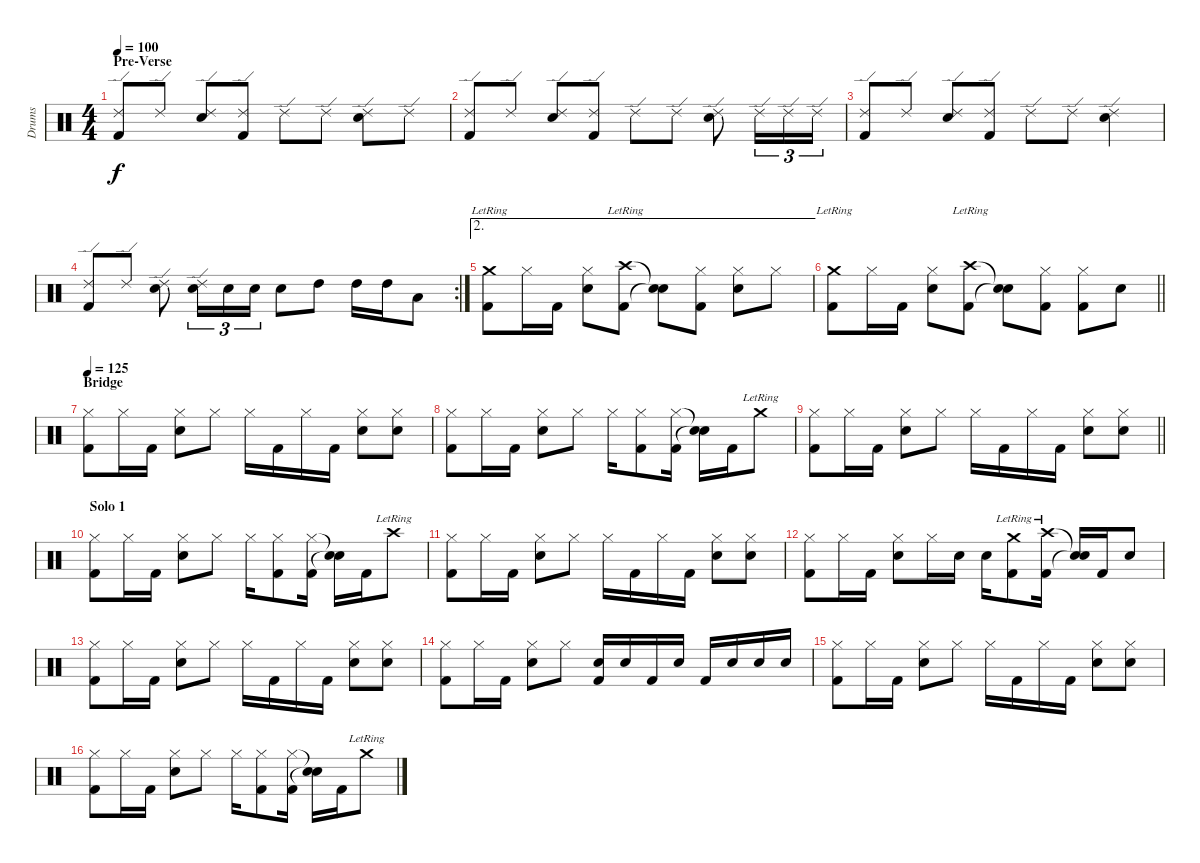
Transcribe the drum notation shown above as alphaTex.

\track ("Drums" "Drums") {instrument percussion}
\staff {score}
\articulation defaults
\ts (4 4)
\section ("" "Pre-Verse")
\tempo 100
\clef neutral
\ks c
("Ride (edge) 2" "Kick (hit) 2").8{dy f} "Ride (edge) 2".8 ("Ride (edge) 2" "Snare (hit) 2").8 ("Ride (edge) 2" "Kick (hit) 2").8 "Ride (edge) 2".8 "Ride (edge) 2".8 ("Ride (edge) 2" "Snare (hit) 2").8 "Ride (edge) 2".8 |
("Ride (edge) 2" "Kick (hit) 2").8 "Ride (edge) 2".8 ("Ride (edge) 2" "Snare (hit) 2").8 ("Ride (edge) 2" "Kick (hit) 2").8 "Ride (edge) 2".8 "Ride (edge) 2".8 ("Ride (edge) 2" "Snare (hit) 2").8 "Ride (edge) 2".16{tu (3 2)} "Ride (edge) 2".16{tu (3 2)} "Ride (edge) 2".16{tu (3 2)} |
("Ride (edge) 2" "Kick (hit) 2").8 "Ride (edge) 2".8 ("Ride (edge) 2" "Snare (hit) 2").8 ("Ride (edge) 2" "Kick (hit) 2").8 "Ride (edge) 2".8 "Ride (edge) 2".8 ("Ride (edge) 2" "Snare (hit) 2").4 |
\rc 2
("Ride (edge) 2" "Kick (hit) 2").8 "Ride (edge) 2".8 ("Ride (edge) 2" "Snare (hit) 2").8 ("Ride (edge) 2" "Snare (hit) 2").16{tu (3 2)} "Snare (hit) 2".16{tu (3 2)} "Snare (hit) 2".16{tu (3 2)} "Snare (hit) 2".8 "High Tom (hit)".8 "High Tom (hit)".16 "High Tom (hit)".16 "Low Tom (hit)".8 |
\ae 2
("Crash medium (hit)"{lr} "Kick (hit) 2").8 "Hi-Hat (closed)".16 "Kick (hit) 2".16 ("Hi-Hat (closed)" "Snare (hit) 2").8 ("Crash high (hit)"{lr} "Kick (hit) 2").8 ("Snare (hit)"{t} "Snare (hit)"{t}).8 ("Hi-Hat (closed)" "Kick (hit) 2").8 ("Hi-Hat (closed)" "Snare (hit) 2").8 "Hi-Hat (closed)".8 |
\barLineRight lightlight
("Crash medium (hit)"{lr} "Kick (hit) 2").8 "Hi-Hat (closed)".16 "Kick (hit) 2".16 ("Hi-Hat (closed)" "Snare (hit) 2").8 ("Crash high (hit)"{lr} "Kick (hit) 2").8 ("Snare (hit)"{t} "Snare (hit)"{t}).8 ("Hi-Hat (closed)" "Kick (hit) 2").8 ("Hi-Hat (closed)" "Kick (hit) 2").8 "Snare (hit) 2".8 |
\section ("" "Bridge")
\tempo 125
("Hi-Hat (closed)" "Kick (hit) 2").8 "Hi-Hat (closed)".16 "Kick (hit) 2".16 ("Hi-Hat (closed)" "Snare (hit) 2").8 "Hi-Hat (closed)".8 "Hi-Hat (closed)".16 "Kick (hit) 2".16 "Hi-Hat (closed)".16 "Kick (hit) 2".16 ("Hi-Hat (closed)" "Snare (hit) 2").8 ("Hi-Hat (closed)" "Snare (hit) 2").8 |
("Hi-Hat (closed)" "Kick (hit) 2").8 "Hi-Hat (closed)".16 "Kick (hit) 2".16 ("Hi-Hat (closed)" "Snare (hit) 2").8 "Hi-Hat (closed)".8 "Hi-Hat (closed)".16 ("Hi-Hat (closed)" "Kick (hit) 2").8 ("Hi-Hat (closed)" "Kick (hit) 2").16 ("Snare (hit)"{t} "Snare (hit)"{t}).16 "Kick (hit) 2".16 "Crash medium (hit)"{lr}.8 |
\barLineRight lightlight
("Hi-Hat (closed)" "Kick (hit) 2").8 "Hi-Hat (closed)".16 "Kick (hit) 2".16 ("Hi-Hat (closed)" "Snare (hit) 2").8 "Hi-Hat (closed)".8 "Hi-Hat (closed)".16 "Kick (hit) 2".16 "Hi-Hat (closed)".16 "Kick (hit) 2".16 ("Hi-Hat (closed)" "Snare (hit) 2").8 ("Hi-Hat (closed)" "Snare (hit) 2").8 |
\section ("" "Solo 1")
("Hi-Hat (closed)" "Kick (hit) 2").8 "Hi-Hat (closed)".16 "Kick (hit) 2".16 ("Hi-Hat (closed)" "Snare (hit) 2").8 "Hi-Hat (closed)".8 "Hi-Hat (closed)".16 ("Hi-Hat (closed)" "Kick (hit) 2").8 ("Hi-Hat (closed)" "Kick (hit) 2").16 ("Snare (hit)"{t} "Snare (hit)"{t}).16 "Kick (hit) 2".16 "Crash high (hit)"{lr}.8 |
("Hi-Hat (closed)" "Kick (hit) 2").8 "Hi-Hat (closed)".16 "Kick (hit) 2".16 ("Hi-Hat (closed)" "Snare (hit) 2").8 "Hi-Hat (closed)".8 "Hi-Hat (closed)".16 "Kick (hit) 2".16 "Hi-Hat (closed)".16 "Kick (hit) 2".16 ("Hi-Hat (closed)" "Snare (hit) 2").8 ("Hi-Hat (closed)" "Snare (hit) 2").8 |
("Hi-Hat (closed)" "Kick (hit) 2").8 "Hi-Hat (closed)".16 "Kick (hit) 2".16 ("Hi-Hat (closed)" "Snare (hit) 2").8 "Hi-Hat (closed)".16 "Snare (hit) 2".16 "Snare (hit) 2".16 ("Crash medium (hit)"{lr} "Kick (hit) 2").8 ("Crash high (hit)"{lr} "Kick (hit) 2").16 ("Snare (hit)"{t} "Snare (hit)"{t}).16 "Kick (hit) 2".16 "Snare (hit) 2".8 |
("Hi-Hat (closed)" "Kick (hit) 2").8 "Hi-Hat (closed)".16 "Kick (hit) 2".16 ("Hi-Hat (closed)" "Snare (hit) 2").8 "Hi-Hat (closed)".8 "Hi-Hat (closed)".16 "Kick (hit) 2".16 "Hi-Hat (closed)".16 "Kick (hit) 2".16 ("Hi-Hat (closed)" "Snare (hit) 2").8 ("Hi-Hat (closed)" "Snare (hit) 2").8 |
("Hi-Hat (closed)" "Kick (hit) 2").8 "Hi-Hat (closed)".16 "Kick (hit) 2".16 ("Hi-Hat (closed)" "Snare (hit) 2").8 "Hi-Hat (closed)".8 ("Snare (hit) 2" "Kick (hit) 2").16 "Snare (hit) 2".16 "Kick (hit) 2".16 "Snare (hit) 2".16 "Kick (hit) 2".16 "Snare (hit) 2".16 "Snare (hit) 2".16 "Snare (hit) 2".16 |
("Hi-Hat (closed)" "Kick (hit) 2").8 "Hi-Hat (closed)".16 "Kick (hit) 2".16 ("Hi-Hat (closed)" "Snare (hit) 2").8 "Hi-Hat (closed)".8 "Hi-Hat (closed)".16 "Kick (hit) 2".16 "Hi-Hat (closed)".16 "Kick (hit) 2".16 ("Hi-Hat (closed)" "Snare (hit) 2").8 ("Hi-Hat (closed)" "Snare (hit) 2").8 |
("Hi-Hat (closed)" "Kick (hit) 2").8 "Hi-Hat (closed)".16 "Kick (hit) 2".16 ("Hi-Hat (closed)" "Snare (hit) 2").8 "Hi-Hat (closed)".8 "Hi-Hat (closed)".16 ("Hi-Hat (closed)" "Kick (hit) 2").8 ("Hi-Hat (closed)" "Kick (hit) 2").16 ("Snare (hit)"{t} "Snare (hit)"{t}).16 "Kick (hit) 2".16 "Crash medium (hit)"{lr}.8
